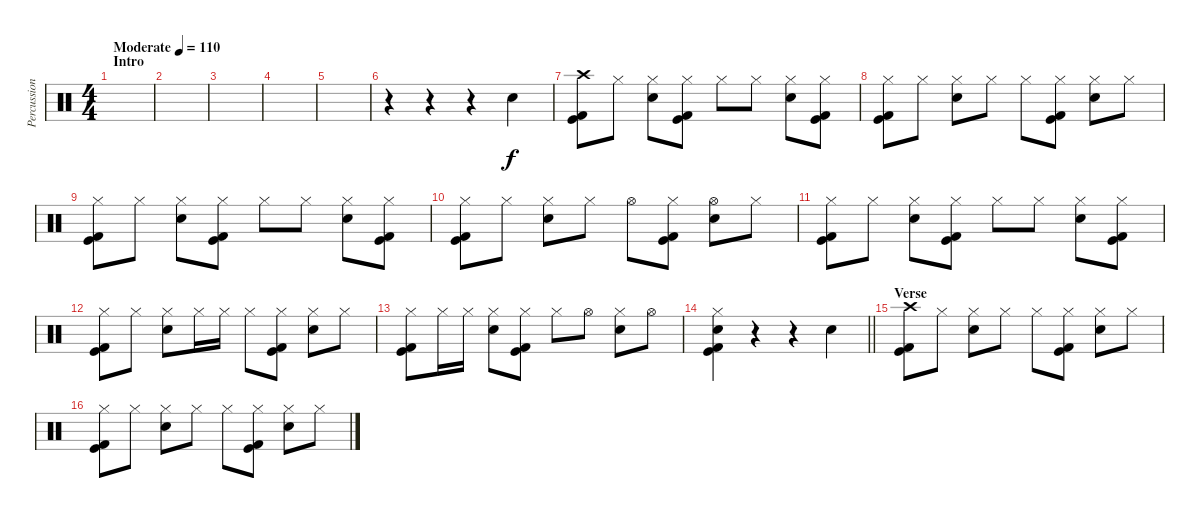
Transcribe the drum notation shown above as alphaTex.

\track ("Percussion" "Percussion") {instrument percussion}
\staff {score}
\articulation defaults
\ts (4 4)
\section ("" "Intro")
\tempo (110 "Moderate")
\clef neutral
\ks c
|
|
|
|
|
r.4 r.4 r.4 "Snare (hit) 2".4 |
("Crash high (hit)" "Kick (hit)" "Kick (hit) 2").8 "Hi-Hat (closed)".8 ("Hi-Hat (closed)" "Snare (hit) 2").8 ("Hi-Hat (closed)" "Kick (hit)" "Kick (hit) 2").8 "Hi-Hat (closed)".8 "Hi-Hat (closed)".8 ("Hi-Hat (closed)" "Snare (hit) 2").8 ("Hi-Hat (closed)" "Kick (hit)" "Kick (hit) 2").8 |
("Hi-Hat (closed)" "Kick (hit)" "Kick (hit) 2").8 "Hi-Hat (closed)".8 ("Hi-Hat (closed)" "Snare (hit) 2").8 "Hi-Hat (closed)".8 "Hi-Hat (closed)".8 ("Hi-Hat (closed)" "Kick (hit)" "Kick (hit) 2").8 ("Hi-Hat (closed)" "Snare (hit) 2").8 "Hi-Hat (closed)".8 |
("Hi-Hat (closed)" "Kick (hit)" "Kick (hit) 2").8 "Hi-Hat (closed)".8 ("Hi-Hat (closed)" "Snare (hit) 2").8 ("Hi-Hat (closed)" "Kick (hit)" "Kick (hit) 2").8 "Hi-Hat (closed)".8 "Hi-Hat (closed)".8 ("Hi-Hat (closed)" "Snare (hit) 2").8 ("Hi-Hat (closed)" "Kick (hit)" "Kick (hit) 2").8 |
("Hi-Hat (closed)" "Kick (hit)" "Kick (hit) 2").8 "Hi-Hat (closed)".8 ("Hi-Hat (closed)" "Snare (hit) 2").8 "Hi-Hat (closed)".8 "Hi-Hat (open)".8 ("Hi-Hat (closed)" "Kick (hit)" "Kick (hit) 2").8 ("Hi-Hat (open)" "Snare (hit) 2").8 "Hi-Hat (closed)".8 |
("Hi-Hat (closed)" "Kick (hit)" "Kick (hit) 2").8 "Hi-Hat (closed)".8 ("Hi-Hat (closed)" "Snare (hit) 2").8 ("Hi-Hat (closed)" "Kick (hit)" "Kick (hit) 2").8 "Hi-Hat (closed)".8 "Hi-Hat (closed)".8 ("Hi-Hat (closed)" "Snare (hit) 2").8 ("Hi-Hat (closed)" "Kick (hit)" "Kick (hit) 2").8 |
("Hi-Hat (closed)" "Kick (hit)" "Kick (hit) 2").8 "Hi-Hat (closed)".8 ("Hi-Hat (closed)" "Snare (hit) 2").8 "Hi-Hat (closed)".16 "Hi-Hat (closed)".16 "Hi-Hat (closed)".8 ("Hi-Hat (closed)" "Kick (hit)" "Kick (hit) 2").8 ("Hi-Hat (closed)" "Snare (hit) 2").8 "Hi-Hat (closed)".8 |
("Hi-Hat (closed)" "Kick (hit)" "Kick (hit) 2").8 "Hi-Hat (closed)".16 "Hi-Hat (closed)".16 ("Hi-Hat (closed)" "Snare (hit) 2").8 ("Hi-Hat (closed)" "Kick (hit)" "Kick (hit) 2").8 "Hi-Hat (closed)".8 "Hi-Hat (open)".8 ("Hi-Hat (closed)" "Snare (hit) 2").8 "Hi-Hat (open)".8 |
\barLineRight lightlight
("Hi-Hat (closed)" "Snare (hit) 2" "Kick (hit)" "Kick (hit) 2").4 r.4 r.4 "Snare (hit) 2".4 |
\section ("" "Verse")
("Crash high (hit)" "Kick (hit)" "Kick (hit) 2").8 "Hi-Hat (closed)".8 ("Hi-Hat (closed)" "Snare (hit) 2").8 "Hi-Hat (closed)".8 "Hi-Hat (closed)".8 ("Hi-Hat (closed)" "Kick (hit)" "Kick (hit) 2").8 ("Hi-Hat (closed)" "Snare (hit) 2").8 "Hi-Hat (closed)".8 |
("Hi-Hat (closed)" "Kick (hit)" "Kick (hit) 2").8 "Hi-Hat (closed)".8 ("Hi-Hat (closed)" "Snare (hit) 2").8 "Hi-Hat (closed)".8 "Hi-Hat (closed)".8 ("Hi-Hat (closed)" "Kick (hit)" "Kick (hit) 2").8 ("Hi-Hat (closed)" "Snare (hit) 2").8 "Hi-Hat (closed)".8
